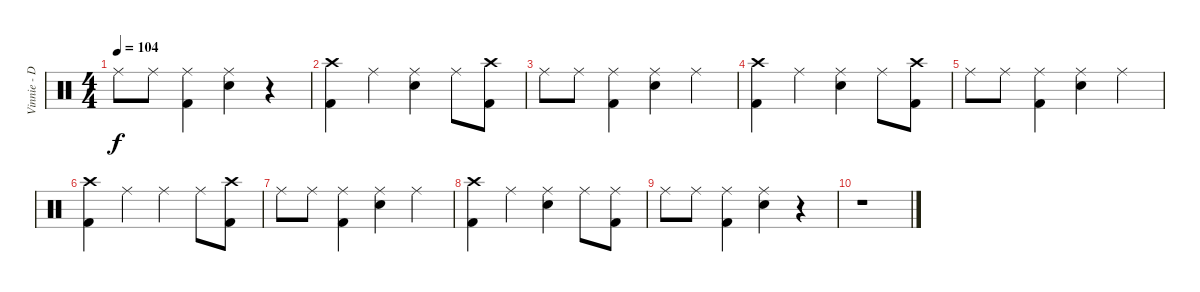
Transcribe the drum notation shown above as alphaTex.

\track ("Vinnie - Drums" "Vinnie - D") {instrument percussion}
\staff {score}
\articulation defaults
\ts (4 4)
\tempo 104
\clef neutral
\ks c "Ride (middle)".8{dy f} "Ride (middle)".8
("Ride (middle)" "Kick (hit) 2").4 ("Ride (middle)" "Electric Snare (hit)").4 r.4 |
("Crash high (hit)" "Kick (hit) 2").4{volume 12} "Ride (middle)".4 ("Ride (middle)" "Electric Snare (hit)").4 "Ride (middle)".8 ("Crash high (hit)" "Kick (hit) 2").8 |
"Ride (middle)".8 "Ride (middle)".8 ("Ride (middle)" "Kick (hit) 2").4 ("Ride (middle)" "Electric Snare (hit)").4 "Ride (middle)".4 |
("Crash high (hit)" "Kick (hit) 2").4{volume 8} "Ride (middle)".4 ("Ride (middle)" "Electric Snare (hit)").4 "Ride (middle)".8 ("Crash high (hit)" "Kick (hit) 2").8 |
"Ride (middle)".8 "Ride (middle)".8 ("Ride (middle)" "Kick (hit) 2").4 ("Ride (middle)" "Electric Snare (hit)").4 "Ride (middle)".4 |
("Crash high (hit)" "Kick (hit) 2").4{volume 4} "Ride (middle)".4 "Ride (middle)".4 "Ride (middle)".8 ("Crash high (hit)" "Kick (hit) 2").8 |
"Ride (middle)".8 "Ride (middle)".8 ("Ride (middle)" "Kick (hit) 2").4 ("Ride (middle)" "Electric Snare (hit)").4 "Ride (middle)".4 |
("Crash high (hit)" "Kick (hit) 2").4{volume 0} "Ride (middle)".4 ("Ride (middle)" "Electric Snare (hit)").4 "Ride (middle)".8 ("Ride (middle)" "Kick (hit) 2").8 |
"Ride (middle)".8 "Ride (middle)".8 ("Ride (middle)" "Kick (hit) 2").4 ("Ride (middle)" "Electric Snare (hit)").4 r.4 |
r.1
